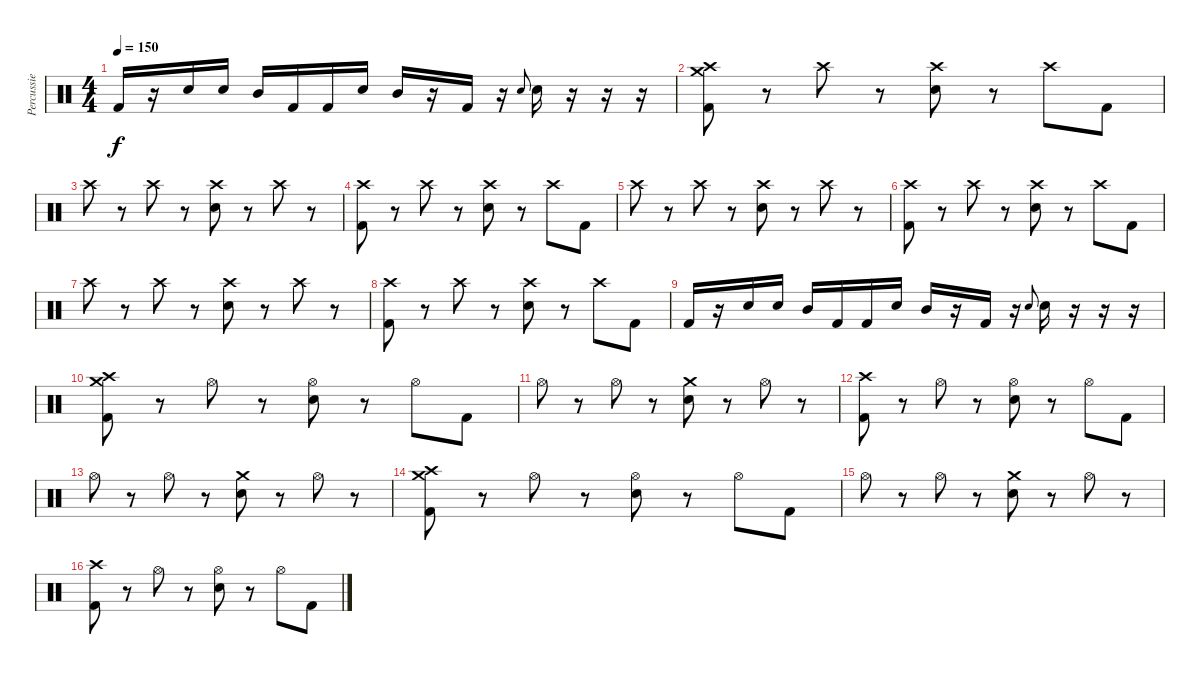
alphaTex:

\track ("Percussie" "Percussie") {instrument percussion}
\staff {score}
\articulation defaults
\ts (4 4)
\tempo 150
\clef neutral
\ks c "Kick (hit) 2".16{dy f}
r.16 "Electric Snare (hit)".16 "Electric Snare (hit)".16 "Mid Tom (hit)".16 "Kick (hit) 2".16 "Kick (hit) 2".16 "Electric Snare (hit)".16 "Mid Tom (hit)".16 r.16 "Kick (hit) 2".16 r.16 "Electric Snare (hit)".8{gr onbeat} "Electric Snare (hit)".16 r.16 r.16 r.16 |
("Crash high (hit)" "Crash medium (hit)" "Kick (hit) 2").8 r.8 "Crash high (hit)".8 r.8 ("Crash high (hit)" "Electric Snare (hit)").8 r.8 "Crash high (hit)".8 "Kick (hit) 2".8 |
"Crash high (hit)".8 r.8 "Crash high (hit)".8 r.8 ("Crash high (hit)" "Electric Snare (hit)").8 r.8 "Crash high (hit)".8 r.8 |
("Crash high (hit)" "Kick (hit) 2").8 r.8 "Crash high (hit)".8 r.8 ("Crash high (hit)" "Electric Snare (hit)").8 r.8 "Crash high (hit)".8 "Kick (hit) 2".8 |
"Crash high (hit)".8 r.8 "Crash high (hit)".8 r.8 ("Crash high (hit)" "Electric Snare (hit)").8 r.8 "Crash high (hit)".8 r.8 |
("Crash high (hit)" "Kick (hit) 2").8 r.8 "Crash high (hit)".8 r.8 ("Crash high (hit)" "Electric Snare (hit)").8 r.8 "Crash high (hit)".8 "Kick (hit) 2".8 |
"Crash high (hit)".8 r.8 "Crash high (hit)".8 r.8 ("Crash high (hit)" "Electric Snare (hit)").8 r.8 "Crash high (hit)".8 r.8 |
("Crash high (hit)" "Kick (hit) 2").8 r.8 "Crash high (hit)".8 r.8 ("Crash high (hit)" "Electric Snare (hit)").8 r.8 "Crash high (hit)".8 "Kick (hit) 2".8 |
"Kick (hit) 2".16 r.16 "Electric Snare (hit)".16 "Electric Snare (hit)".16 "Mid Tom (hit)".16 "Kick (hit) 2".16 "Kick (hit) 2".16 "Electric Snare (hit)".16 "Mid Tom (hit)".16 r.16 "Kick (hit) 2".16 r.16 "Electric Snare (hit)".8{gr onbeat} "Electric Snare (hit)".16 r.16 r.16 r.16 |
("Crash high (hit)" "Crash medium (hit)" "Kick (hit) 2").8 r.8 "Hi-Hat (open)".8 r.8 ("Hi-Hat (open)" "Electric Snare (hit)").8 r.8 "Hi-Hat (open)".8 "Kick (hit) 2".8 |
"Hi-Hat (open)".8 r.8 "Hi-Hat (open)".8 r.8 ("Crash medium (hit)" "Electric Snare (hit)").8 r.8 "Hi-Hat (open)".8 r.8 |
("Crash high (hit)" "Kick (hit) 2").8 r.8 "Hi-Hat (open)".8 r.8 ("Hi-Hat (open)" "Electric Snare (hit)").8 r.8 "Hi-Hat (open)".8 "Kick (hit) 2".8 |
"Hi-Hat (open)".8 r.8 "Hi-Hat (open)".8 r.8 ("Crash medium (hit)" "Electric Snare (hit)").8 r.8 "Hi-Hat (open)".8 r.8 |
("Crash high (hit)" "Crash medium (hit)" "Kick (hit) 2").8 r.8 "Hi-Hat (open)".8 r.8 ("Hi-Hat (open)" "Electric Snare (hit)").8 r.8 "Hi-Hat (open)".8 "Kick (hit) 2".8 |
"Hi-Hat (open)".8 r.8 "Hi-Hat (open)".8 r.8 ("Crash medium (hit)" "Electric Snare (hit)").8 r.8 "Hi-Hat (open)".8 r.8 |
("Crash high (hit)" "Kick (hit) 2").8 r.8 "Hi-Hat (open)".8 r.8 ("Hi-Hat (open)" "Electric Snare (hit)").8 r.8 "Hi-Hat (open)".8 "Kick (hit) 2".8
